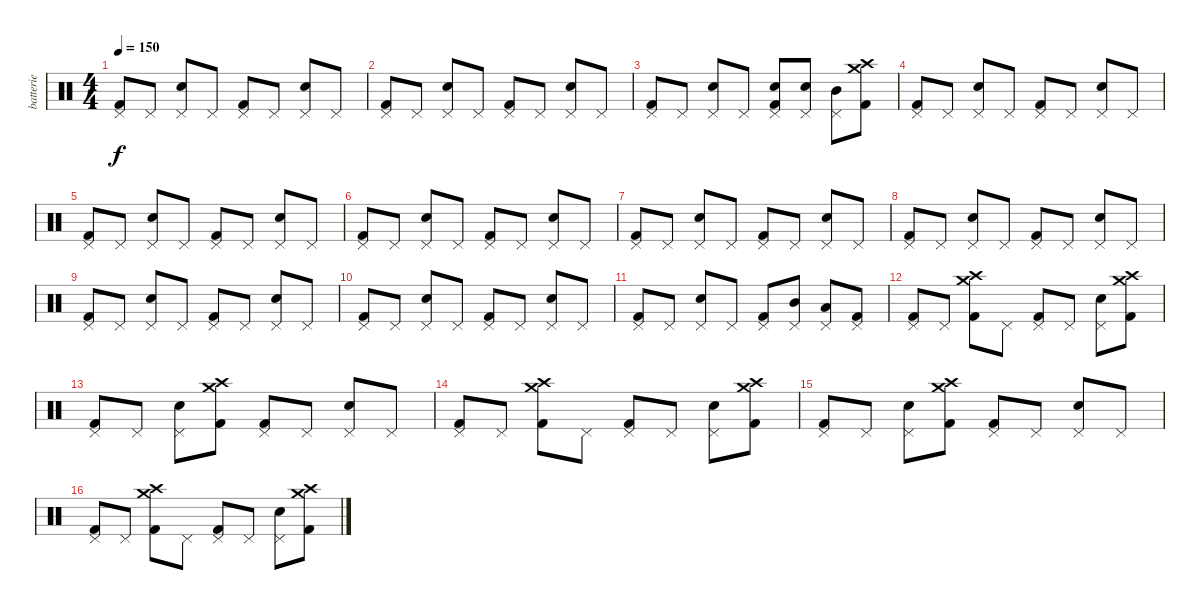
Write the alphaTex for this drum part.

\track ("batterie" "batterie") {instrument percussion}
\staff {score}
\articulation defaults
\ts (4 4)
\tempo 150
\clef neutral
\ks c
("Pedal Hi-Hat (hit)" "Kick (hit) 2").8{dy f} "Pedal Hi-Hat (hit)".8 ("Pedal Hi-Hat (hit)" "Snare (hit) 2").8 "Pedal Hi-Hat (hit)".8 ("Pedal Hi-Hat (hit)" "Kick (hit) 2").8 "Pedal Hi-Hat (hit)".8 ("Pedal Hi-Hat (hit)" "Snare (hit) 2").8 "Pedal Hi-Hat (hit)".8 |
("Pedal Hi-Hat (hit)" "Kick (hit) 2").8 "Pedal Hi-Hat (hit)".8 ("Pedal Hi-Hat (hit)" "Snare (hit) 2").8 "Pedal Hi-Hat (hit)".8 ("Pedal Hi-Hat (hit)" "Kick (hit) 2").8 "Pedal Hi-Hat (hit)".8 ("Pedal Hi-Hat (hit)" "Snare (hit) 2").8 "Pedal Hi-Hat (hit)".8 |
("Pedal Hi-Hat (hit)" "Kick (hit) 2").8 "Pedal Hi-Hat (hit)".8 ("Pedal Hi-Hat (hit)" "Snare (hit) 2").8 "Pedal Hi-Hat (hit)".8 ("Pedal Hi-Hat (hit)" "Snare (hit) 2" "Kick (hit) 2").8 ("Pedal Hi-Hat (hit)" "Snare (hit) 2").8 ("Pedal Hi-Hat (hit)" "Mid Tom (hit)").8 ("Crash high (hit)" "Crash medium (hit)" "Kick (hit) 2").8 |
("Pedal Hi-Hat (hit)" "Kick (hit) 2").8 "Pedal Hi-Hat (hit)".8 ("Pedal Hi-Hat (hit)" "Snare (hit) 2").8 "Pedal Hi-Hat (hit)".8 ("Pedal Hi-Hat (hit)" "Kick (hit) 2").8 "Pedal Hi-Hat (hit)".8 ("Pedal Hi-Hat (hit)" "Snare (hit) 2").8 "Pedal Hi-Hat (hit)".8 |
("Pedal Hi-Hat (hit)" "Kick (hit) 2").8 "Pedal Hi-Hat (hit)".8 ("Pedal Hi-Hat (hit)" "Snare (hit) 2").8 "Pedal Hi-Hat (hit)".8 ("Pedal Hi-Hat (hit)" "Kick (hit) 2").8 "Pedal Hi-Hat (hit)".8 ("Pedal Hi-Hat (hit)" "Snare (hit) 2").8 "Pedal Hi-Hat (hit)".8 |
("Pedal Hi-Hat (hit)" "Kick (hit) 2").8 "Pedal Hi-Hat (hit)".8 ("Pedal Hi-Hat (hit)" "Snare (hit) 2").8 "Pedal Hi-Hat (hit)".8 ("Pedal Hi-Hat (hit)" "Kick (hit) 2").8 "Pedal Hi-Hat (hit)".8 ("Pedal Hi-Hat (hit)" "Snare (hit) 2").8 "Pedal Hi-Hat (hit)".8 |
("Pedal Hi-Hat (hit)" "Kick (hit) 2").8 "Pedal Hi-Hat (hit)".8 ("Pedal Hi-Hat (hit)" "Snare (hit) 2").8 "Pedal Hi-Hat (hit)".8 ("Pedal Hi-Hat (hit)" "Kick (hit) 2").8 "Pedal Hi-Hat (hit)".8 ("Pedal Hi-Hat (hit)" "Snare (hit) 2").8 "Pedal Hi-Hat (hit)".8 |
("Pedal Hi-Hat (hit)" "Kick (hit) 2").8 "Pedal Hi-Hat (hit)".8 ("Pedal Hi-Hat (hit)" "Snare (hit) 2").8 "Pedal Hi-Hat (hit)".8 ("Pedal Hi-Hat (hit)" "Kick (hit) 2").8 "Pedal Hi-Hat (hit)".8 ("Pedal Hi-Hat (hit)" "Snare (hit) 2").8 "Pedal Hi-Hat (hit)".8 |
("Pedal Hi-Hat (hit)" "Kick (hit) 2").8 "Pedal Hi-Hat (hit)".8 ("Pedal Hi-Hat (hit)" "Snare (hit) 2").8 "Pedal Hi-Hat (hit)".8 ("Pedal Hi-Hat (hit)" "Kick (hit) 2").8 "Pedal Hi-Hat (hit)".8 ("Pedal Hi-Hat (hit)" "Snare (hit) 2").8 "Pedal Hi-Hat (hit)".8 |
("Pedal Hi-Hat (hit)" "Kick (hit) 2").8 "Pedal Hi-Hat (hit)".8 ("Pedal Hi-Hat (hit)" "Snare (hit) 2").8 "Pedal Hi-Hat (hit)".8 ("Pedal Hi-Hat (hit)" "Kick (hit) 2").8 "Pedal Hi-Hat (hit)".8 ("Pedal Hi-Hat (hit)" "Snare (hit) 2").8 "Pedal Hi-Hat (hit)".8 |
("Pedal Hi-Hat (hit)" "Kick (hit) 2").8 "Pedal Hi-Hat (hit)".8 ("Pedal Hi-Hat (hit)" "Snare (hit) 2").8 "Pedal Hi-Hat (hit)".8 ("Pedal Hi-Hat (hit)" "Kick (hit) 2").8 ("Pedal Hi-Hat (hit)" "Mid Tom (hit)").8 ("Pedal Hi-Hat (hit)" "Low Tom (hit)").8 ("Pedal Hi-Hat (hit)" "Kick (hit) 2").8 |
("Pedal Hi-Hat (hit)" "Kick (hit) 2").8 "Pedal Hi-Hat (hit)".8 ("Crash high (hit)" "Crash medium (hit)" "Kick (hit) 2").8 "Pedal Hi-Hat (hit)".8 ("Pedal Hi-Hat (hit)" "Kick (hit) 2").8 "Pedal Hi-Hat (hit)".8 ("Pedal Hi-Hat (hit)" "Snare (hit) 2").8 ("Crash high (hit)" "Crash medium (hit)" "Kick (hit) 2").8 |
("Pedal Hi-Hat (hit)" "Kick (hit) 2").8 "Pedal Hi-Hat (hit)".8 ("Pedal Hi-Hat (hit)" "Snare (hit) 2").8 ("Crash high (hit)" "Crash medium (hit)" "Kick (hit) 2").8 ("Pedal Hi-Hat (hit)" "Kick (hit) 2").8 "Pedal Hi-Hat (hit)".8 ("Pedal Hi-Hat (hit)" "Snare (hit) 2").8 "Pedal Hi-Hat (hit)".8 |
("Pedal Hi-Hat (hit)" "Kick (hit) 2").8 "Pedal Hi-Hat (hit)".8 ("Crash high (hit)" "Crash medium (hit)" "Kick (hit) 2").8 "Pedal Hi-Hat (hit)".8 ("Pedal Hi-Hat (hit)" "Kick (hit) 2").8 "Pedal Hi-Hat (hit)".8 ("Pedal Hi-Hat (hit)" "Snare (hit) 2").8 ("Crash high (hit)" "Crash medium (hit)" "Kick (hit) 2").8 |
("Pedal Hi-Hat (hit)" "Kick (hit) 2").8 "Pedal Hi-Hat (hit)".8 ("Pedal Hi-Hat (hit)" "Snare (hit) 2").8 ("Crash high (hit)" "Crash medium (hit)" "Kick (hit) 2").8 ("Pedal Hi-Hat (hit)" "Kick (hit) 2").8 "Pedal Hi-Hat (hit)".8 ("Pedal Hi-Hat (hit)" "Snare (hit) 2").8 "Pedal Hi-Hat (hit)".8 |
("Pedal Hi-Hat (hit)" "Kick (hit) 2").8 "Pedal Hi-Hat (hit)".8 ("Crash high (hit)" "Crash medium (hit)" "Kick (hit) 2").8 "Pedal Hi-Hat (hit)".8 ("Pedal Hi-Hat (hit)" "Kick (hit) 2").8 "Pedal Hi-Hat (hit)".8 ("Pedal Hi-Hat (hit)" "Snare (hit) 2").8 ("Crash high (hit)" "Crash medium (hit)" "Kick (hit) 2").8
